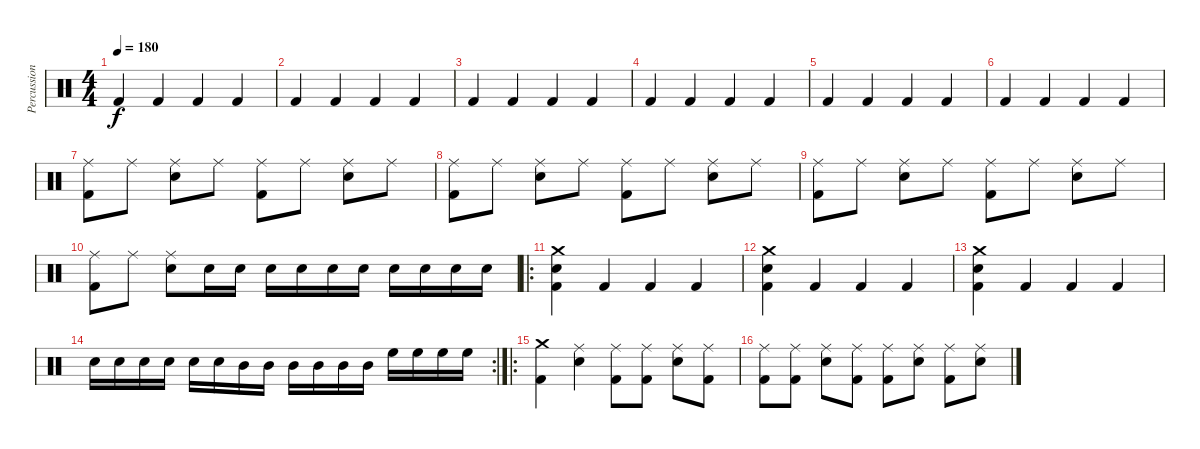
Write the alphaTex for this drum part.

\track ("Percussions" "Percussion") {instrument percussion}
\staff {score}
\articulation defaults
\ts (4 4)
\tempo 180
\clef neutral
\ks c "Kick (hit) 2".4{dy f} "Kick (hit) 2".4 "Kick (hit) 2".4 "Kick (hit) 2".4
|
"Kick (hit) 2".4 "Kick (hit) 2".4 "Kick (hit) 2".4 "Kick (hit) 2".4 |
"Kick (hit) 2".4 "Kick (hit) 2".4 "Kick (hit) 2".4 "Kick (hit) 2".4 |
"Kick (hit) 2".4 "Kick (hit) 2".4 "Kick (hit) 2".4 "Kick (hit) 2".4 |
"Kick (hit) 2".4 "Kick (hit) 2".4 "Kick (hit) 2".4 "Kick (hit) 2".4 |
"Kick (hit) 2".4 "Kick (hit) 2".4 "Kick (hit) 2".4 "Kick (hit) 2".4 |
("Ride (middle)" "Kick (hit) 2").8 "Ride (middle)".8 ("Ride (middle)" "Electric Snare (hit)").8 "Ride (middle)".8 ("Ride (middle)" "Kick (hit) 2").8 "Ride (middle)".8 ("Ride (middle)" "Electric Snare (hit)").8 "Ride (middle)".8 |
("Ride (middle)" "Kick (hit) 2").8 "Ride (middle)".8 ("Ride (middle)" "Electric Snare (hit)").8 "Ride (middle)".8 ("Ride (middle)" "Kick (hit) 2").8 "Ride (middle)".8 ("Ride (middle)" "Electric Snare (hit)").8 "Ride (middle)".8 |
("Ride (middle)" "Kick (hit) 2").8 "Ride (middle)".8 ("Ride (middle)" "Electric Snare (hit)").8 "Ride (middle)".8 ("Ride (middle)" "Kick (hit) 2").8 "Ride (middle)".8 ("Ride (middle)" "Electric Snare (hit)").8 "Ride (middle)".8 |
("Ride (middle)" "Kick (hit) 2").8 "Ride (middle)".8 ("Ride (middle)" "Electric Snare (hit)").8 "Electric Snare (hit)".16 "Electric Snare (hit)".16 "Electric Snare (hit)".16 "Electric Snare (hit)".16 "Electric Snare (hit)".16 "Electric Snare (hit)".16 "Electric Snare (hit)".16 "Electric Snare (hit)".16 "Electric Snare (hit)".16 "Electric Snare (hit)".16 |
\ro
("Crash medium (hit)" "Electric Snare (hit)" "Kick (hit) 2").4 "Kick (hit) 2".4 "Kick (hit) 2".4 "Kick (hit) 2".4 |
("Crash medium (hit)" "Electric Snare (hit)" "Kick (hit) 2").4 "Kick (hit) 2".4 "Kick (hit) 2".4 "Kick (hit) 2".4 |
("Crash medium (hit)" "Electric Snare (hit)" "Kick (hit) 2").4 "Kick (hit) 2".4 "Kick (hit) 2".4 "Kick (hit) 2".4 |
\rc 2 "Electric Snare (hit)".16 "Electric Snare (hit)".16 "Electric Snare (hit)".16 "Electric Snare (hit)".16 "Electric Snare (hit)".16 "Electric Snare (hit)".16 "Mid Tom (hit)".16 "Mid Tom (hit)".16 "Mid Tom (hit)".16 "Mid Tom (hit)".16 "Mid Tom (hit)".16 "Mid Tom (hit)".16 "High Floor Tom (hit)".16 "High Floor Tom (hit)".16 "High Floor Tom (hit)".16 "High Floor Tom (hit)".16
|
\ro
("Crash medium (hit)" "Kick (hit) 2").4 ("Ride (middle)" "Electric Snare (hit)").4 ("Ride (middle)" "Kick (hit) 2").8 ("Ride (middle)" "Kick (hit) 2").8 ("Ride (middle)" "Electric Snare (hit)").8 ("Ride (middle)" "Kick (hit) 2").8 |
("Ride (middle)" "Kick (hit) 2").8 ("Ride (middle)" "Kick (hit) 2").8 ("Ride (middle)" "Electric Snare (hit)").8 ("Ride (middle)" "Kick (hit) 2").8 ("Ride (middle)" "Kick (hit) 2").8 ("Ride (middle)" "Electric Snare (hit)").8 ("Ride (middle)" "Kick (hit) 2").8 ("Ride (middle)" "Electric Snare (hit)").8
